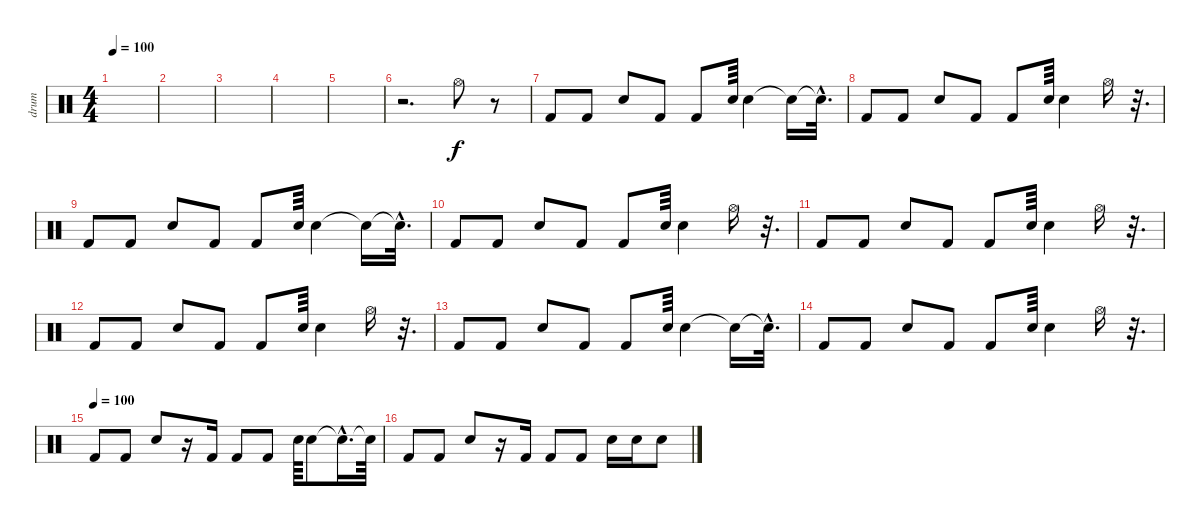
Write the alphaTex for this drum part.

\track ("drum" "drum") {instrument percussion}
\staff {score}
\articulation defaults
\ts (4 4)
\tempo 100
\clef neutral
\ks c
|
|
|
|
|
r.2{d} "Hi-Hat (open)".8 r.8 |
"Kick (hit) 2".8{volume 16} "Kick (hit) 2".8 "Snare (hit) 2".8 "Kick (hit) 2".8 "Kick (hit) 2".8 "Snare (hit) 2".64 "Snare (hit) 2".4 "Snare (hit) 2"{t}.16 "Snare (hit) 2"{hac t}.32{d} |
"Kick (hit) 2".8{volume 16} "Kick (hit) 2".8 "Snare (hit) 2".8 "Kick (hit) 2".8 "Kick (hit) 2".8 "Snare (hit) 2".64 "Snare (hit) 2".4 "Hi-Hat (open)".16 r.32{d} |
"Kick (hit) 2".8{volume 16} "Kick (hit) 2".8 "Snare (hit) 2".8 "Kick (hit) 2".8 "Kick (hit) 2".8 "Snare (hit) 2".64 "Snare (hit) 2".4 "Snare (hit) 2"{t}.16 "Snare (hit) 2"{hac t}.32{d} |
"Kick (hit) 2".8{volume 16} "Kick (hit) 2".8 "Snare (hit) 2".8 "Kick (hit) 2".8 "Kick (hit) 2".8 "Snare (hit) 2".64 "Snare (hit) 2".4 "Hi-Hat (open)".16 r.32{d} |
"Kick (hit) 2".8{volume 16} "Kick (hit) 2".8 "Snare (hit) 2".8 "Kick (hit) 2".8 "Kick (hit) 2".8 "Snare (hit) 2".64 "Snare (hit) 2".4 "Hi-Hat (open)".16 r.32{d} |
"Kick (hit) 2".8{volume 16} "Kick (hit) 2".8 "Snare (hit) 2".8 "Kick (hit) 2".8 "Kick (hit) 2".8 "Snare (hit) 2".64 "Snare (hit) 2".4 "Hi-Hat (open)".16 r.32{d} |
"Kick (hit) 2".8{volume 16} "Kick (hit) 2".8 "Snare (hit) 2".8 "Kick (hit) 2".8 "Kick (hit) 2".8 "Snare (hit) 2".64 "Snare (hit) 2".4 "Snare (hit) 2"{t}.16 "Snare (hit) 2"{hac t}.32{d} |
"Kick (hit) 2".8{volume 16} "Kick (hit) 2".8 "Snare (hit) 2".8 "Kick (hit) 2".8 "Kick (hit) 2".8 "Snare (hit) 2".64 "Snare (hit) 2".4 "Hi-Hat (open)".16 r.32{d} |
\tempo (100)
"Kick (hit) 2".8{volume 16} "Kick (hit) 2".8 "Snare (hit) 2".8 r.16 "Kick (hit) 2".16 "Kick (hit) 2".8 "Kick (hit) 2".8 "Snare (hit) 2".64 "Snare (hit) 2".8 "Snare (hit) 2"{hac t}.16{d} "Snare (hit) 2"{t}.64 |
"Kick (hit) 2".8{volume 16} "Kick (hit) 2".8 "Snare (hit) 2".8 r.16 "Kick (hit) 2".16 "Kick (hit) 2".8 "Kick (hit) 2".8 "Snare (hit) 2".16 "Snare (hit) 2".16 "Snare (hit) 2".8
